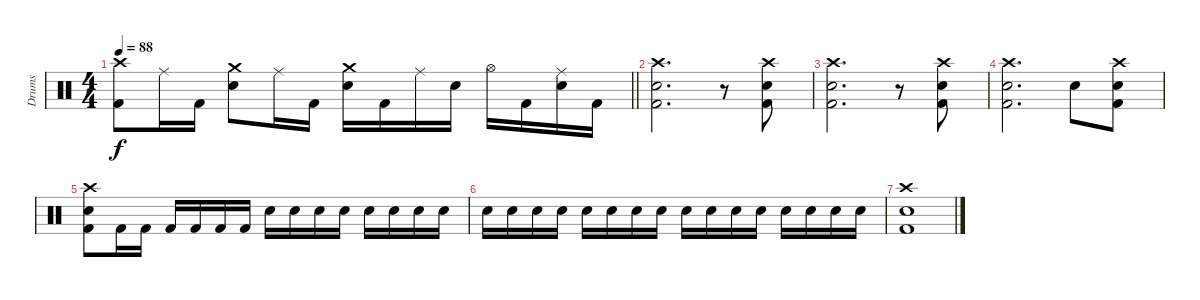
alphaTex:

\track ("Drums" "Drums") {instrument percussion}
\staff {score}
\articulation defaults
\ts (4 4)
\tempo 88
\clef neutral
\barLineRight lightlight
\ks c
("Crash high (hit)" "Kick (hit) 2").8{dy f} "Ride (middle)".16 "Kick (hit) 2".16 ("Crash medium (hit)" "Snare (hit) 2").8 "Ride (middle)".16 "Kick (hit) 2".16 ("Crash medium (hit)" "Snare (hit) 2").16 "Kick (hit) 2".16 "Ride (middle)".16 "Snare (hit) 2".16 "Hi-Hat (open)".16 "Kick (hit) 2".16 ("Ride (middle)" "Snare (hit) 2").16 "Kick (hit) 2".16 |
("Crash high (hit)" "Snare (hit) 2" "Kick (hit) 2").2{d} r.8 ("Crash high (hit)" "Snare (hit) 2" "Kick (hit) 2").8 |
("Crash high (hit)" "Snare (hit) 2" "Kick (hit) 2").2{d} r.8 ("Crash high (hit)" "Snare (hit) 2" "Kick (hit) 2").8 |
("Crash high (hit)" "Snare (hit) 2" "Kick (hit) 2").2{d} "Snare (hit) 2".8 ("Crash high (hit)" "Snare (hit) 2" "Kick (hit) 2").8 |
("Crash high (hit)" "Snare (hit) 2" "Kick (hit) 2").8 "Kick (hit) 2".16 "Kick (hit) 2".16 "Kick (hit) 2".16 "Kick (hit) 2".16 "Kick (hit) 2".16 "Kick (hit) 2".16 "Snare (hit) 2".16 "Snare (hit) 2".16 "Snare (hit) 2".16 "Snare (hit) 2".16 "Snare (hit) 2".16 "Snare (hit) 2".16 "Snare (hit) 2".16 "Snare (hit) 2".16 |
"Snare (hit) 2".16 "Snare (hit) 2".16 "Snare (hit) 2".16 "Snare (hit) 2".16 "Snare (hit) 2".16 "Snare (hit) 2".16 "Snare (hit) 2".16 "Snare (hit) 2".16 "Snare (hit) 2".16 "Snare (hit) 2".16 "Snare (hit) 2".16 "Snare (hit) 2".16 "Snare (hit) 2".16 "Snare (hit) 2".16 "Snare (hit) 2".16 "Snare (hit) 2".16 |
("Crash high (hit)" "Snare (hit) 2" "Kick (hit) 2").1
